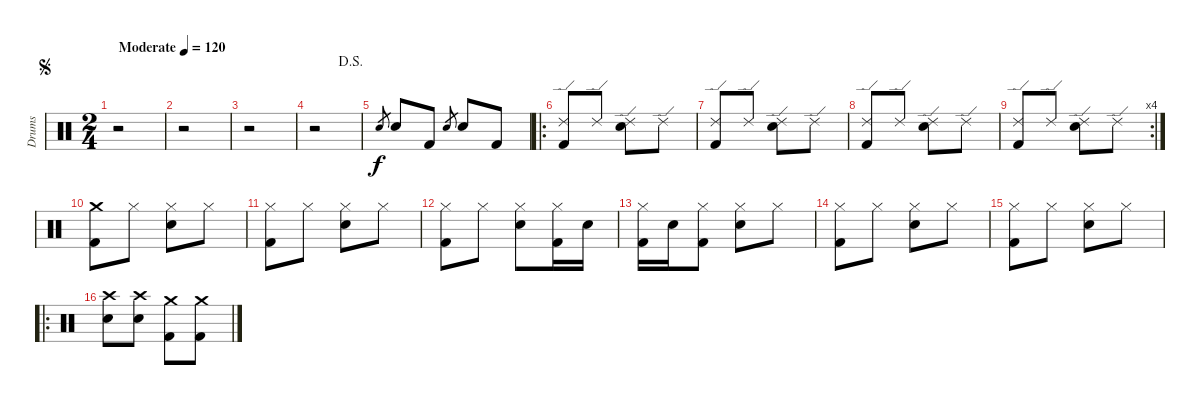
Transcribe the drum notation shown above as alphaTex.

\track ("Drums" "Drums") {instrument percussion}
\staff {score}
\articulation defaults
\ts (2 4)
\jump segno
\tempo (120 "Moderate")
\clef neutral
\ks c
r.2{dy f} |
r.2 |
r.2 |
\jump dalsegno
r.2 |
"Electric Snare (hit)".8{gr} "Electric Snare (hit)".8 "Kick (hit) 2".8 "Electric Snare (hit)".8{gr} "Electric Snare (hit)".8 "Kick (hit) 2".8 |
\ro
("Kick (hit) 2" "Ride (edge) 2").8 "Ride (edge) 2".8 ("Electric Snare (hit)" "Ride (edge) 2").8 "Ride (edge) 2".8 |
("Kick (hit) 2" "Ride (edge) 2").8 "Ride (edge) 2".8 ("Electric Snare (hit)" "Ride (edge) 2").8 "Ride (edge) 2".8 |
("Kick (hit) 2" "Ride (edge) 2").8 "Ride (edge) 2".8 ("Electric Snare (hit)" "Ride (edge) 2").8 "Ride (edge) 2".8 |
\rc 4
("Kick (hit) 2" "Ride (edge) 2").8 "Ride (edge) 2".8 ("Electric Snare (hit)" "Ride (edge) 2").8 "Ride (edge) 2".8 |
("Kick (hit) 2" "Crash medium (hit)").8 "Hi-Hat (closed)".8 ("Electric Snare (hit)" "Hi-Hat (closed)").8 "Hi-Hat (closed)".8 |
("Kick (hit) 2" "Hi-Hat (closed)").8 "Hi-Hat (closed)".8 ("Electric Snare (hit)" "Hi-Hat (closed)").8 "Hi-Hat (closed)".8 |
("Kick (hit) 2" "Hi-Hat (closed)").8 "Hi-Hat (closed)".8 ("Electric Snare (hit)" "Hi-Hat (closed)").8 ("Hi-Hat (closed)" "Kick (hit) 2").16 "Electric Snare (hit)".16 |
("Kick (hit) 2" "Hi-Hat (closed)").16 "Electric Snare (hit)".16 ("Kick (hit) 2" "Hi-Hat (closed)").8 ("Electric Snare (hit)" "Hi-Hat (closed)").8 "Hi-Hat (closed)".8 |
("Kick (hit) 2" "Hi-Hat (closed)").8 "Hi-Hat (closed)".8 ("Electric Snare (hit)" "Hi-Hat (closed)").8 "Hi-Hat (closed)".8 |
("Kick (hit) 2" "Hi-Hat (closed)").8 "Hi-Hat (closed)".8 ("Electric Snare (hit)" "Hi-Hat (closed)").8 "Hi-Hat (closed)".8 |
\ro
("Electric Snare (hit)" "Crash high (hit)").8 ("Electric Snare (hit)" "Crash high (hit)").8 ("Kick (hit) 2" "Crash medium (hit)").8 ("Kick (hit) 2" "Crash medium (hit)").8
